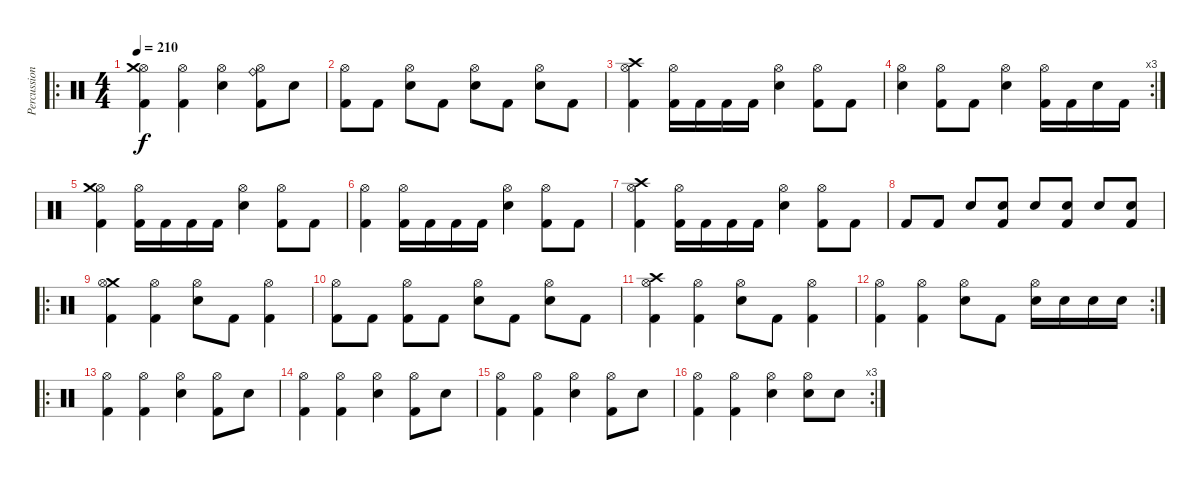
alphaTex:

\track ("Percussion" "Percussion") {instrument percussion}
\staff {score}
\articulation defaults
\ro
\ts (4 4)
\tempo 210
\clef neutral
\ks c
("Hi-Hat (open)" "Kick (hit) 2" "Crash medium (hit)").4{dy f} ("Hi-Hat (open)" "Kick (hit) 2").4 ("Hi-Hat (open)" "Snare (hit) 2").4 ("Hi-Hat (open)" "Kick (hit) 2" "Ride (bell)").8 "Snare (hit) 2".8 |
("Hi-Hat (open)" "Kick (hit) 2").8 "Kick (hit) 2".8 ("Hi-Hat (open)" "Snare (hit) 2").8 "Kick (hit) 2".8 ("Hi-Hat (open)" "Snare (hit) 2").8 "Kick (hit) 2".8 ("Hi-Hat (open)" "Snare (hit) 2").8 "Kick (hit) 2".8 |
("Hi-Hat (open)" "Kick (hit) 2" "Crash high (hit)").4 ("Hi-Hat (open)" "Kick (hit) 2").16 "Kick (hit) 2".16 "Kick (hit) 2".16 "Kick (hit) 2".16 ("Hi-Hat (open)" "Snare (hit) 2").4 ("Hi-Hat (open)" "Kick (hit) 2").8 "Kick (hit) 2".8 |
\rc 3
("Hi-Hat (open)" "Snare (hit) 2").4 ("Hi-Hat (open)" "Kick (hit) 2").8 "Kick (hit) 2".8 ("Hi-Hat (open)" "Snare (hit) 2").4 ("Hi-Hat (open)" "Kick (hit) 2").16 "Kick (hit) 2".16 "Snare (hit) 2".16 "Kick (hit) 2".16 |
("Hi-Hat (open)" "Kick (hit) 2" "Crash medium (hit)").4 ("Hi-Hat (open)" "Kick (hit) 2").16 "Kick (hit) 2".16 "Kick (hit) 2".16 "Kick (hit) 2".16 ("Hi-Hat (open)" "Snare (hit) 2").4 ("Hi-Hat (open)" "Kick (hit) 2").8 "Kick (hit) 2".8 |
("Hi-Hat (open)" "Kick (hit) 2").4 ("Hi-Hat (open)" "Kick (hit) 2").16 "Kick (hit) 2".16 "Kick (hit) 2".16 "Kick (hit) 2".16 ("Hi-Hat (open)" "Snare (hit) 2").4 ("Hi-Hat (open)" "Kick (hit) 2").8 "Kick (hit) 2".8 |
("Hi-Hat (open)" "Kick (hit) 2" "Crash high (hit)").4 ("Hi-Hat (open)" "Kick (hit) 2").16 "Kick (hit) 2".16 "Kick (hit) 2".16 "Kick (hit) 2".16 ("Hi-Hat (open)" "Snare (hit) 2").4 ("Hi-Hat (open)" "Kick (hit) 2").8 "Kick (hit) 2".8 |
"Kick (hit) 2".8 "Kick (hit) 2".8 "Snare (hit) 2".8 ("Kick (hit) 2" "Snare (hit) 2").8 "Snare (hit) 2".8 ("Kick (hit) 2" "Snare (hit) 2").8 "Snare (hit) 2".8 ("Kick (hit) 2" "Snare (hit) 2").8 |
\ro
("Kick (hit) 2" "Crash medium (hit)" "Hi-Hat (open)").4 ("Kick (hit) 2" "Hi-Hat (open)").4 ("Snare (hit) 2" "Hi-Hat (open)").8 "Kick (hit) 2".8 ("Kick (hit) 2" "Hi-Hat (open)").4 |
("Kick (hit) 2" "Hi-Hat (open)").8 "Kick (hit) 2".8 ("Kick (hit) 2" "Hi-Hat (open)").8 "Kick (hit) 2".8 ("Snare (hit) 2" "Hi-Hat (open)").8 "Kick (hit) 2".8 ("Snare (hit) 2" "Hi-Hat (open)").8 "Kick (hit) 2".8 |
("Kick (hit) 2" "Crash high (hit)" "Hi-Hat (open)").4 ("Kick (hit) 2" "Hi-Hat (open)").4 ("Snare (hit) 2" "Hi-Hat (open)").8 "Kick (hit) 2".8 ("Kick (hit) 2" "Hi-Hat (open)").4 |
\rc 2
("Kick (hit) 2" "Hi-Hat (open)").4 ("Kick (hit) 2" "Hi-Hat (open)").4 ("Snare (hit) 2" "Hi-Hat (open)").8 "Kick (hit) 2".8 ("Snare (hit) 2" "Hi-Hat (open)").16 "Snare (hit) 2".16 "Snare (hit) 2".16 "Snare (hit) 2".16 |
\ro
("Hi-Hat (open)" "Kick (hit) 2").4 ("Hi-Hat (open)" "Kick (hit) 2").4 ("Hi-Hat (open)" "Snare (hit) 2").4 ("Hi-Hat (open)" "Kick (hit) 2").8 "Snare (hit) 2".8 |
("Hi-Hat (open)" "Kick (hit) 2").4 ("Hi-Hat (open)" "Kick (hit) 2").4 ("Hi-Hat (open)" "Snare (hit) 2").4 ("Hi-Hat (open)" "Kick (hit) 2").8 "Snare (hit) 2".8 |
("Hi-Hat (open)" "Kick (hit) 2").4 ("Hi-Hat (open)" "Kick (hit) 2").4 ("Hi-Hat (open)" "Snare (hit) 2").4 ("Hi-Hat (open)" "Kick (hit) 2").8 "Snare (hit) 2".8 |
\rc 3
("Hi-Hat (open)" "Kick (hit) 2").4 ("Hi-Hat (open)" "Kick (hit) 2").4 ("Hi-Hat (open)" "Snare (hit) 2").4 ("Hi-Hat (open)" "Snare (hit) 2").8 "Snare (hit) 2".8
